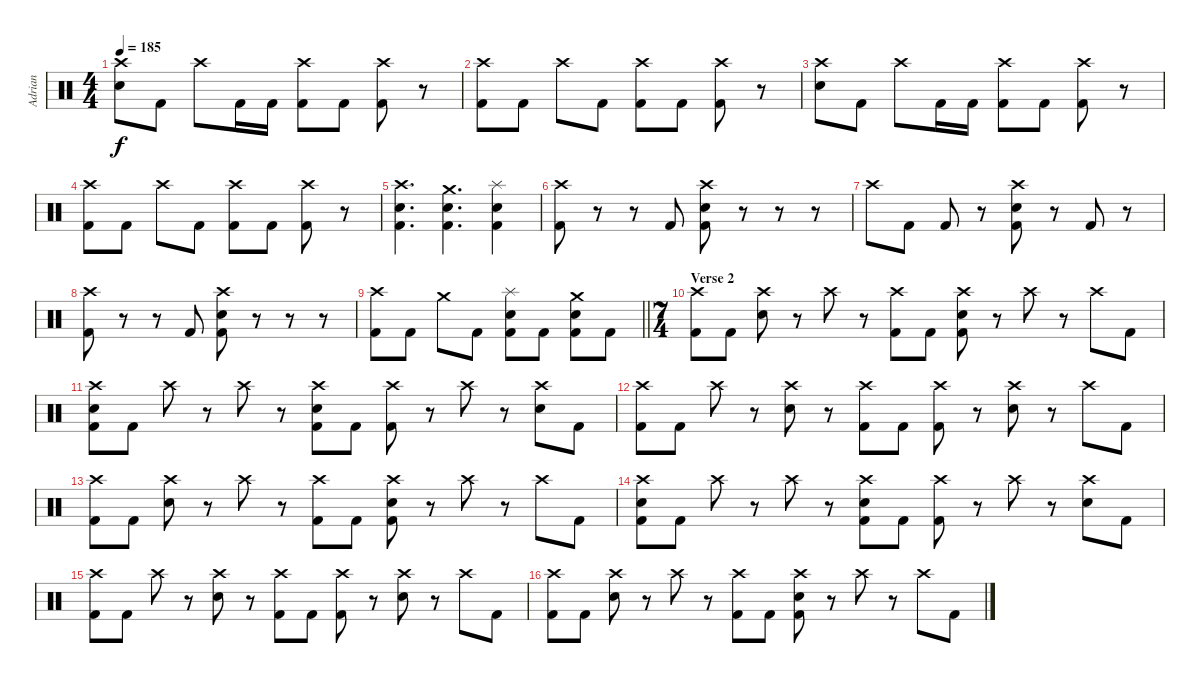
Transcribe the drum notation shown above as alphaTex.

\track ("Adrian" "Adrian") {instrument percussion}
\staff {score}
\articulation defaults
\ts (4 4)
\tempo 185
\clef neutral
\ks c
("Crash high (hit)" "Snare (hit) 2").8{dy f} "Kick (hit) 2".8 "Crash high (hit)".8 "Kick (hit) 2".16 "Kick (hit) 2".16 ("Crash high (hit)" "Kick (hit) 2").8 "Kick (hit) 2".8 ("Crash high (hit)" "Kick (hit) 2").8 r.8 |
("Crash high (hit)" "Kick (hit) 2").8 "Kick (hit) 2".8 "Crash high (hit)".8 "Kick (hit) 2".8 ("Crash high (hit)" "Kick (hit) 2").8 "Kick (hit) 2".8 ("Crash high (hit)" "Kick (hit) 2").8 r.8 |
("Crash high (hit)" "Snare (hit) 2").8 "Kick (hit) 2".8 "Crash high (hit)".8 "Kick (hit) 2".16 "Kick (hit) 2".16 ("Crash high (hit)" "Kick (hit) 2").8 "Kick (hit) 2".8 ("Crash high (hit)" "Kick (hit) 2").8 r.8 |
("Crash high (hit)" "Kick (hit) 2").8 "Kick (hit) 2".8 "Crash high (hit)".8 "Kick (hit) 2".8 ("Crash high (hit)" "Kick (hit) 2").8 "Kick (hit) 2".8 ("Crash high (hit)" "Kick (hit) 2").8 r.8 |
("Crash high (hit)" "Snare (hit) 2" "Kick (hit) 2").4{d} ("Crash medium (hit)" "Snare (hit) 2" "Kick (hit) 2").4{d} ("Splash (hit)" "Snare (hit) 2" "Kick (hit) 2").4 |
("Crash high (hit)" "Kick (hit) 2").8 r.8 r.8 "Kick (hit) 2".8 ("Crash high (hit)" "Snare (hit) 2" "Kick (hit) 2").8 r.8 r.8 r.8 |
"Crash high (hit)".8 "Kick (hit) 2".8 "Kick (hit) 2".8 r.8 ("Crash high (hit)" "Snare (hit) 2" "Kick (hit) 2").8 r.8 "Kick (hit) 2".8 r.8 |
("Crash high (hit)" "Kick (hit) 2").8 r.8 r.8 "Kick (hit) 2".8 ("Crash high (hit)" "Snare (hit) 2" "Kick (hit) 2").8 r.8 r.8 r.8 |
\barLineRight lightlight
("Crash high (hit)" "Kick (hit) 2").8 "Kick (hit) 2".8 "Crash medium (hit)".8 "Kick (hit) 2".8 ("Splash (hit)" "Snare (hit) 2" "Kick (hit) 2").8 "Kick (hit) 2".8 ("Crash medium (hit)" "Snare (hit) 2" "Kick (hit) 2").8 "Kick (hit) 2".8 |
\ts (7 4)
\section ("" "Verse 2")
("Crash high (hit)" "Kick (hit) 2").8 "Kick (hit) 2".8 ("Crash high (hit)" "Snare (hit) 2").8 r.8 "Crash high (hit)".8 r.8 ("Crash high (hit)" "Kick (hit) 2").8 "Kick (hit) 2".8 ("Crash high (hit)" "Snare (hit) 2" "Kick (hit) 2").8 r.8 "Crash high (hit)".8 r.8 "Crash high (hit)".8 "Kick (hit) 2".8 |
("Crash high (hit)" "Snare (hit) 2" "Kick (hit) 2").8 "Kick (hit) 2".8 "Crash high (hit)".8 r.8 "Crash high (hit)".8 r.8 ("Crash high (hit)" "Snare (hit) 2" "Kick (hit) 2").8 "Kick (hit) 2".8 ("Crash high (hit)" "Kick (hit) 2").8 r.8 "Crash high (hit)".8 r.8 ("Crash high (hit)" "Snare (hit) 2").8 "Kick (hit) 2".8 |
("Crash high (hit)" "Kick (hit) 2").8 "Kick (hit) 2".8 "Crash high (hit)".8 r.8 ("Crash high (hit)" "Snare (hit) 2").8 r.8 ("Crash high (hit)" "Kick (hit) 2").8 "Kick (hit) 2".8 ("Crash high (hit)" "Kick (hit) 2").8 r.8 ("Crash high (hit)" "Snare (hit) 2").8 r.8 "Crash high (hit)".8 "Kick (hit) 2".8 |
("Crash high (hit)" "Kick (hit) 2").8 "Kick (hit) 2".8 ("Crash high (hit)" "Snare (hit) 2").8 r.8 "Crash high (hit)".8 r.8 ("Crash high (hit)" "Kick (hit) 2").8 "Kick (hit) 2".8 ("Crash high (hit)" "Snare (hit) 2" "Kick (hit) 2").8 r.8 "Crash high (hit)".8 r.8 "Crash high (hit)".8 "Kick (hit) 2".8 |
("Crash high (hit)" "Snare (hit) 2" "Kick (hit) 2").8 "Kick (hit) 2".8 "Crash high (hit)".8 r.8 "Crash high (hit)".8 r.8 ("Crash high (hit)" "Snare (hit) 2" "Kick (hit) 2").8 "Kick (hit) 2".8 ("Crash high (hit)" "Kick (hit) 2").8 r.8 "Crash high (hit)".8 r.8 ("Crash high (hit)" "Snare (hit) 2").8 "Kick (hit) 2".8 |
("Crash high (hit)" "Kick (hit) 2").8 "Kick (hit) 2".8 "Crash high (hit)".8 r.8 ("Crash high (hit)" "Snare (hit) 2").8 r.8 ("Crash high (hit)" "Kick (hit) 2").8 "Kick (hit) 2".8 ("Crash high (hit)" "Kick (hit) 2").8 r.8 ("Crash high (hit)" "Snare (hit) 2").8 r.8 "Crash high (hit)".8 "Kick (hit) 2".8 |
("Crash high (hit)" "Kick (hit) 2").8 "Kick (hit) 2".8 ("Crash high (hit)" "Snare (hit) 2").8 r.8 "Crash high (hit)".8 r.8 ("Crash high (hit)" "Kick (hit) 2").8 "Kick (hit) 2".8 ("Crash high (hit)" "Snare (hit) 2" "Kick (hit) 2").8 r.8 "Crash high (hit)".8 r.8 "Crash high (hit)".8 "Kick (hit) 2".8
